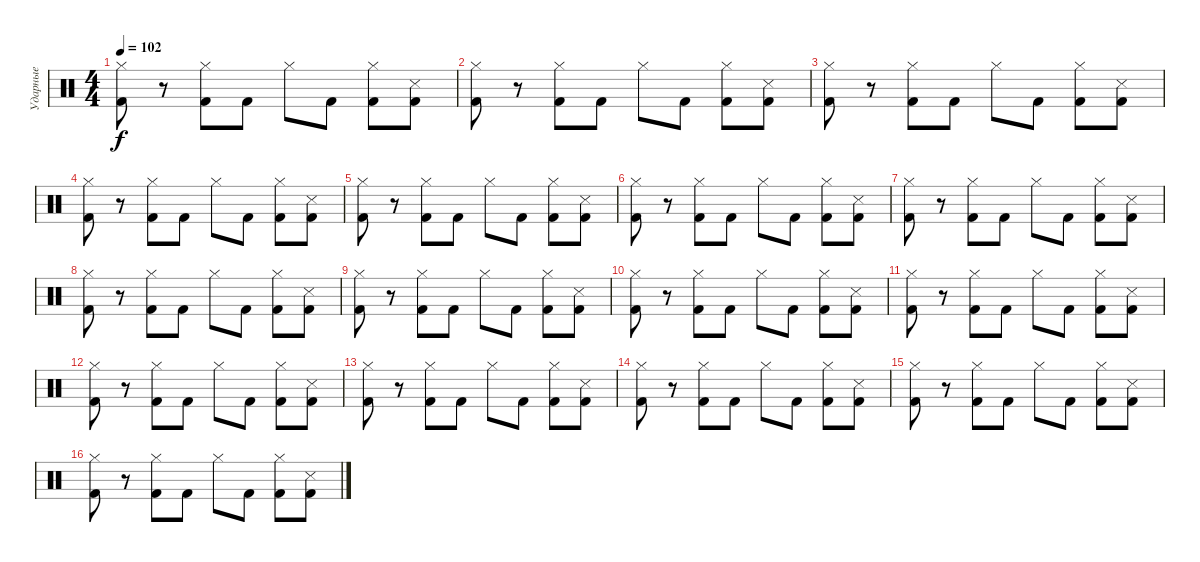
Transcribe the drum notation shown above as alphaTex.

\track ("Ударные" "Ударные") {instrument percussion}
\staff {score}
\articulation defaults
\ts (4 4)
\tempo 102
\clef neutral
\ks c
("Hi-Hat (closed)" "Kick (hit) 2").8{dy f} r.8 ("Hi-Hat (closed)" "Kick (hit) 2").8 "Kick (hit) 2".8 "Hi-Hat (closed)".8 "Kick (hit) 2".8 ("Hi-Hat (closed)" "Kick (hit) 2").8 ("Metronome (hit)" "Kick (hit) 2").8 |
("Hi-Hat (closed)" "Kick (hit) 2").8 r.8 ("Hi-Hat (closed)" "Kick (hit) 2").8 "Kick (hit) 2".8 "Hi-Hat (closed)".8 "Kick (hit) 2".8 ("Hi-Hat (closed)" "Kick (hit) 2").8 ("Metronome (hit)" "Kick (hit) 2").8 |
("Hi-Hat (closed)" "Kick (hit) 2").8 r.8 ("Hi-Hat (closed)" "Kick (hit) 2").8 "Kick (hit) 2".8 "Hi-Hat (closed)".8 "Kick (hit) 2".8 ("Hi-Hat (closed)" "Kick (hit) 2").8 ("Metronome (hit)" "Kick (hit) 2").8 |
("Hi-Hat (closed)" "Kick (hit) 2").8 r.8 ("Hi-Hat (closed)" "Kick (hit) 2").8 "Kick (hit) 2".8 "Hi-Hat (closed)".8 "Kick (hit) 2".8 ("Hi-Hat (closed)" "Kick (hit) 2").8 ("Metronome (hit)" "Kick (hit) 2").8 |
("Hi-Hat (closed)" "Kick (hit) 2").8 r.8 ("Hi-Hat (closed)" "Kick (hit) 2").8 "Kick (hit) 2".8 "Hi-Hat (closed)".8 "Kick (hit) 2".8 ("Hi-Hat (closed)" "Kick (hit) 2").8 ("Metronome (hit)" "Kick (hit) 2").8 |
("Hi-Hat (closed)" "Kick (hit) 2").8 r.8 ("Hi-Hat (closed)" "Kick (hit) 2").8 "Kick (hit) 2".8 "Hi-Hat (closed)".8 "Kick (hit) 2".8 ("Hi-Hat (closed)" "Kick (hit) 2").8 ("Metronome (hit)" "Kick (hit) 2").8 |
("Hi-Hat (closed)" "Kick (hit) 2").8 r.8 ("Hi-Hat (closed)" "Kick (hit) 2").8 "Kick (hit) 2".8 "Hi-Hat (closed)".8 "Kick (hit) 2".8 ("Hi-Hat (closed)" "Kick (hit) 2").8 ("Metronome (hit)" "Kick (hit) 2").8 |
("Hi-Hat (closed)" "Kick (hit) 2").8 r.8 ("Hi-Hat (closed)" "Kick (hit) 2").8 "Kick (hit) 2".8 "Hi-Hat (closed)".8 "Kick (hit) 2".8 ("Hi-Hat (closed)" "Kick (hit) 2").8 ("Metronome (hit)" "Kick (hit) 2").8 |
("Hi-Hat (closed)" "Kick (hit) 2").8 r.8 ("Hi-Hat (closed)" "Kick (hit) 2").8 "Kick (hit) 2".8 "Hi-Hat (closed)".8 "Kick (hit) 2".8 ("Hi-Hat (closed)" "Kick (hit) 2").8 ("Metronome (hit)" "Kick (hit) 2").8 |
("Hi-Hat (closed)" "Kick (hit) 2").8 r.8 ("Hi-Hat (closed)" "Kick (hit) 2").8 "Kick (hit) 2".8 "Hi-Hat (closed)".8 "Kick (hit) 2".8 ("Hi-Hat (closed)" "Kick (hit) 2").8 ("Metronome (hit)" "Kick (hit) 2").8 |
("Hi-Hat (closed)" "Kick (hit) 2").8 r.8 ("Hi-Hat (closed)" "Kick (hit) 2").8 "Kick (hit) 2".8 "Hi-Hat (closed)".8 "Kick (hit) 2".8 ("Hi-Hat (closed)" "Kick (hit) 2").8 ("Metronome (hit)" "Kick (hit) 2").8 |
("Hi-Hat (closed)" "Kick (hit) 2").8 r.8 ("Hi-Hat (closed)" "Kick (hit) 2").8 "Kick (hit) 2".8 "Hi-Hat (closed)".8 "Kick (hit) 2".8 ("Hi-Hat (closed)" "Kick (hit) 2").8 ("Metronome (hit)" "Kick (hit) 2").8 |
("Hi-Hat (closed)" "Kick (hit) 2").8 r.8 ("Hi-Hat (closed)" "Kick (hit) 2").8 "Kick (hit) 2".8 "Hi-Hat (closed)".8 "Kick (hit) 2".8 ("Hi-Hat (closed)" "Kick (hit) 2").8 ("Metronome (hit)" "Kick (hit) 2").8 |
("Hi-Hat (closed)" "Kick (hit) 2").8 r.8 ("Hi-Hat (closed)" "Kick (hit) 2").8 "Kick (hit) 2".8 "Hi-Hat (closed)".8 "Kick (hit) 2".8 ("Hi-Hat (closed)" "Kick (hit) 2").8 ("Metronome (hit)" "Kick (hit) 2").8 |
("Hi-Hat (closed)" "Kick (hit) 2").8 r.8 ("Hi-Hat (closed)" "Kick (hit) 2").8 "Kick (hit) 2".8 "Hi-Hat (closed)".8 "Kick (hit) 2".8 ("Hi-Hat (closed)" "Kick (hit) 2").8 ("Metronome (hit)" "Kick (hit) 2").8 |
("Hi-Hat (closed)" "Kick (hit) 2").8 r.8 ("Hi-Hat (closed)" "Kick (hit) 2").8 "Kick (hit) 2".8 "Hi-Hat (closed)".8 "Kick (hit) 2".8 ("Hi-Hat (closed)" "Kick (hit) 2").8 ("Metronome (hit)" "Kick (hit) 2").8
